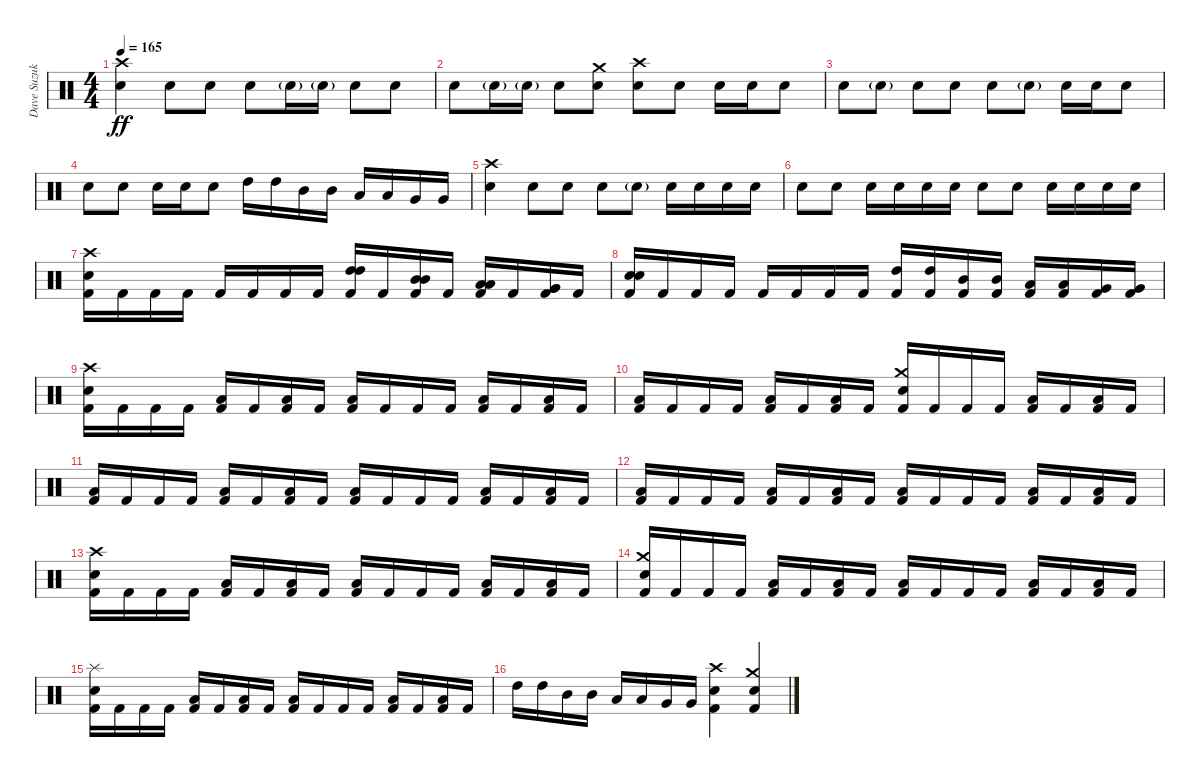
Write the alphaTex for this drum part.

\track ("Dave Suzuki - Drums" "Dave Suzuk") {instrument percussion}
\staff {score}
\articulation defaults
\ts (4 4)
\tempo 165
\clef neutral
\ks c
("Crash high (hit)" "Electric Snare (hit)").4{dy ff} "Electric Snare (hit)".8 "Electric Snare (hit)".8 "Electric Snare (hit)".8 "Electric Snare (hit)"{g}.16 "Electric Snare (hit)"{g}.16 "Electric Snare (hit)".8 "Electric Snare (hit)".8 |
"Electric Snare (hit)".8 "Electric Snare (hit)"{g}.16 "Electric Snare (hit)"{g}.16 "Electric Snare (hit)".8 ("Crash medium (hit)" "Electric Snare (hit)").8 ("Crash high (hit)" "Electric Snare (hit)").8 "Electric Snare (hit)".8 "Electric Snare (hit)".16 "Electric Snare (hit)".16 "Electric Snare (hit)".8 |
"Electric Snare (hit)".8 "Electric Snare (hit)"{g}.8 "Electric Snare (hit)".8 "Electric Snare (hit)".8 "Electric Snare (hit)".8 "Electric Snare (hit)"{g}.8 "Electric Snare (hit)".16 "Electric Snare (hit)".16 "Electric Snare (hit)".8 |
"Electric Snare (hit)".8 "Electric Snare (hit)".8 "Electric Snare (hit)".16 "Electric Snare (hit)".16 "Electric Snare (hit)".8 "High Tom (hit)".16 "High Tom (hit)".16 "Mid Tom (hit)".16 "Mid Tom (hit)".16 "Low Tom (hit)".16 "Low Tom (hit)".16 "Very Low Tom (hit)".16 "Very Low Tom (hit)".16 |
("Crash high (hit)" "Electric Snare (hit)").4 "Electric Snare (hit)".8 "Electric Snare (hit)".8 "Electric Snare (hit)".8 "Electric Snare (hit)"{g}.8 "Electric Snare (hit)".16 "Electric Snare (hit)".16 "Electric Snare (hit)".16 "Electric Snare (hit)".16 |
"Electric Snare (hit)".8 "Electric Snare (hit)".8 "Electric Snare (hit)".16 "Electric Snare (hit)".16 "Electric Snare (hit)".16 "Electric Snare (hit)".16 "Electric Snare (hit)".8 "Electric Snare (hit)".8 "Electric Snare (hit)".16 "Electric Snare (hit)".16 "Electric Snare (hit)".16 "Electric Snare (hit)".16 |
("Crash high (hit)" "Electric Snare (hit)" "Kick (hit) 2").16 "Kick (hit) 2".16 "Kick (hit) 2".16 "Kick (hit) 2".16 "Kick (hit) 2".16 "Kick (hit) 2".16 "Kick (hit) 2".16 "Kick (hit) 2".16 ("High Tom (hit)" "High Tom (hit)" "Kick (hit) 2").16 "Kick (hit) 2".16 ("Mid Tom (hit)" "Mid Tom (hit)" "Kick (hit) 2").16 "Kick (hit) 2".16 ("Low Tom (hit)" "Low Tom (hit)" "Kick (hit) 2").16 "Kick (hit) 2".16 ("Very Low Tom (hit)" "Very Low Tom (hit)" "Kick (hit) 2").16 "Kick (hit) 2".16 |
("Electric Snare (hit)" "Electric Snare (hit)" "Kick (hit) 2").16 "Kick (hit) 2".16 "Kick (hit) 2".16 "Kick (hit) 2".16 "Kick (hit) 2".16 "Kick (hit) 2".16 "Kick (hit) 2".16 "Kick (hit) 2".16 ("High Tom (hit)" "Kick (hit) 2").16 ("High Tom (hit)" "Kick (hit) 2").16 ("Mid Tom (hit)" "Kick (hit) 2").16 ("Mid Tom (hit)" "Kick (hit) 2").16 ("Low Tom (hit)" "Kick (hit) 2").16 ("Low Tom (hit)" "Kick (hit) 2").16 ("Very Low Tom (hit)" "Kick (hit) 2").16 ("Very Low Tom (hit)" "Kick (hit) 2").16 |
("Crash high (hit)" "Electric Snare (hit)" "Kick (hit) 2").16 "Kick (hit) 2".16 "Kick (hit) 2".16 "Kick (hit) 2".16 ("Low Tom (hit)" "Kick (hit) 2").16 "Kick (hit) 2".16 ("Low Tom (hit)" "Kick (hit) 2").16 "Kick (hit) 2".16 ("Low Tom (hit)" "Kick (hit) 2").16 "Kick (hit) 2".16 "Kick (hit) 2".16 "Kick (hit) 2".16 ("Low Tom (hit)" "Kick (hit) 2").16 "Kick (hit) 2".16 ("Low Tom (hit)" "Kick (hit) 2").16 "Kick (hit) 2".16 |
("Low Tom (hit)" "Kick (hit) 2").16 "Kick (hit) 2".16 "Kick (hit) 2".16 "Kick (hit) 2".16 ("Low Tom (hit)" "Kick (hit) 2").16 "Kick (hit) 2".16 ("Low Tom (hit)" "Kick (hit) 2").16 "Kick (hit) 2".16 ("Crash medium (hit)" "Electric Snare (hit)" "Kick (hit) 2").16 "Kick (hit) 2".16 "Kick (hit) 2".16 "Kick (hit) 2".16 ("Low Tom (hit)" "Kick (hit) 2").16 "Kick (hit) 2".16 ("Low Tom (hit)" "Kick (hit) 2").16 "Kick (hit) 2".16 |
("Low Tom (hit)" "Kick (hit) 2").16 "Kick (hit) 2".16 "Kick (hit) 2".16 "Kick (hit) 2".16 ("Low Tom (hit)" "Kick (hit) 2").16 "Kick (hit) 2".16 ("Low Tom (hit)" "Kick (hit) 2").16 "Kick (hit) 2".16 ("Low Tom (hit)" "Kick (hit) 2").16 "Kick (hit) 2".16 "Kick (hit) 2".16 "Kick (hit) 2".16 ("Low Tom (hit)" "Kick (hit) 2").16 "Kick (hit) 2".16 ("Low Tom (hit)" "Kick (hit) 2").16 "Kick (hit) 2".16 |
("Low Tom (hit)" "Kick (hit) 2").16 "Kick (hit) 2".16 "Kick (hit) 2".16 "Kick (hit) 2".16 ("Low Tom (hit)" "Kick (hit) 2").16 "Kick (hit) 2".16 ("Low Tom (hit)" "Kick (hit) 2").16 "Kick (hit) 2".16 ("Low Tom (hit)" "Kick (hit) 2").16 "Kick (hit) 2".16 "Kick (hit) 2".16 "Kick (hit) 2".16 ("Low Tom (hit)" "Kick (hit) 2").16 "Kick (hit) 2".16 ("Low Tom (hit)" "Kick (hit) 2").16 "Kick (hit) 2".16 |
("Crash high (hit)" "Electric Snare (hit)" "Kick (hit) 2").16 "Kick (hit) 2".16 "Kick (hit) 2".16 "Kick (hit) 2".16 ("Low Tom (hit)" "Kick (hit) 2").16 "Kick (hit) 2".16 ("Low Tom (hit)" "Kick (hit) 2").16 "Kick (hit) 2".16 ("Low Tom (hit)" "Kick (hit) 2").16 "Kick (hit) 2".16 "Kick (hit) 2".16 "Kick (hit) 2".16 ("Low Tom (hit)" "Kick (hit) 2").16 "Kick (hit) 2".16 ("Low Tom (hit)" "Kick (hit) 2").16 "Kick (hit) 2".16 |
("Crash medium (hit)" "Electric Snare (hit)" "Kick (hit) 2").16 "Kick (hit) 2".16 "Kick (hit) 2".16 "Kick (hit) 2".16 ("Low Tom (hit)" "Kick (hit) 2").16 "Kick (hit) 2".16 ("Low Tom (hit)" "Kick (hit) 2").16 "Kick (hit) 2".16 ("Low Tom (hit)" "Kick (hit) 2").16 "Kick (hit) 2".16 "Kick (hit) 2".16 "Kick (hit) 2".16 ("Low Tom (hit)" "Kick (hit) 2").16 "Kick (hit) 2".16 ("Low Tom (hit)" "Kick (hit) 2").16 "Kick (hit) 2".16 |
("Splash (hit)" "Electric Snare (hit)" "Kick (hit) 2").16 "Kick (hit) 2".16 "Kick (hit) 2".16 "Kick (hit) 2".16 ("Low Tom (hit)" "Kick (hit) 2").16 "Kick (hit) 2".16 ("Low Tom (hit)" "Kick (hit) 2").16 "Kick (hit) 2".16 ("Low Tom (hit)" "Kick (hit) 2").16 "Kick (hit) 2".16 "Kick (hit) 2".16 "Kick (hit) 2".16 ("Low Tom (hit)" "Kick (hit) 2").16 "Kick (hit) 2".16 ("Low Tom (hit)" "Kick (hit) 2").16 "Kick (hit) 2".16 |
"High Tom (hit)".16 "High Tom (hit)".16 "Mid Tom (hit)".16 "Mid Tom (hit)".16 "Low Tom (hit)".16 "Low Tom (hit)".16 "Very Low Tom (hit)".16 "Very Low Tom (hit)".16 ("Crash high (hit)" "Electric Snare (hit)" "Kick (hit) 2").4 ("Crash medium (hit)" "Electric Snare (hit)" "Kick (hit) 2").4
